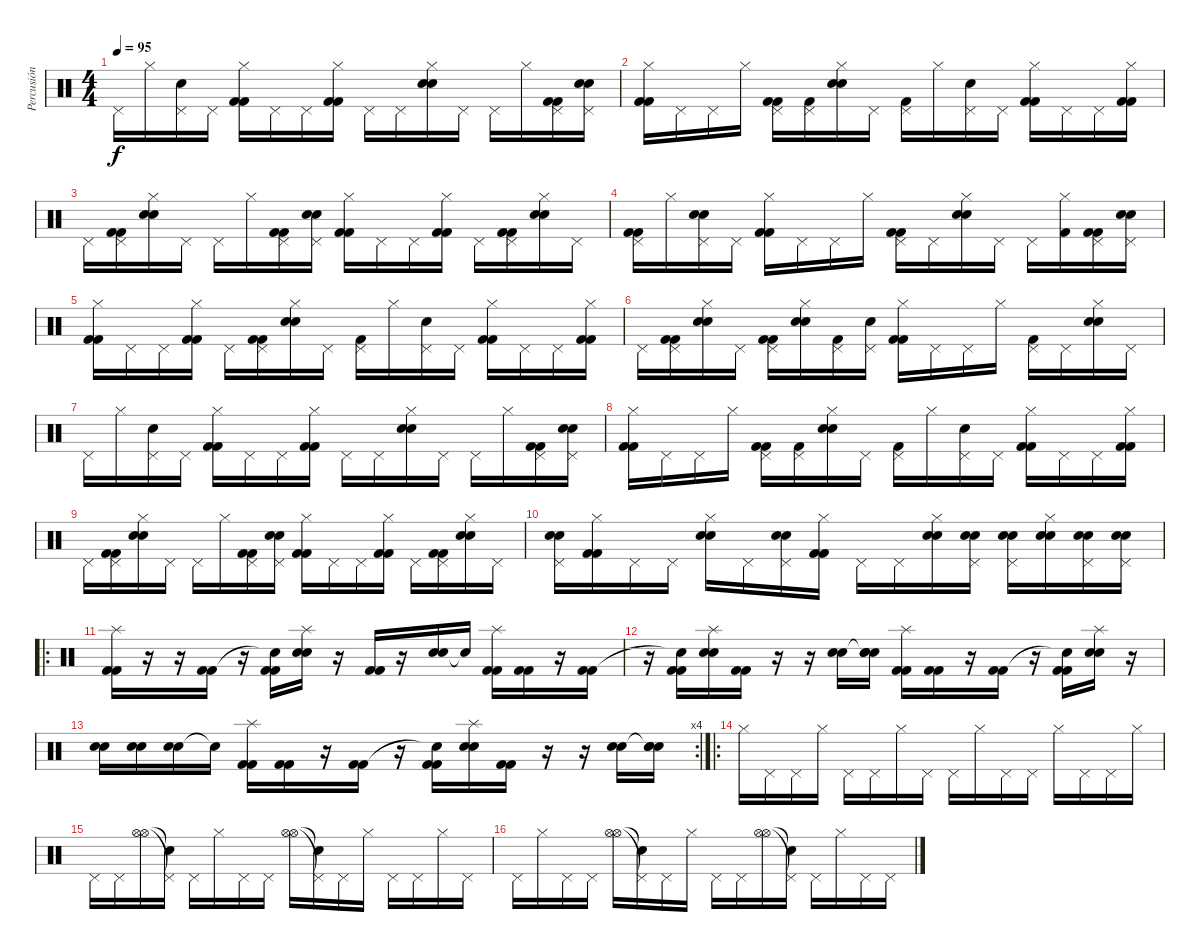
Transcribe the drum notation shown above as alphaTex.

\track ("Percusión" "Percusión") {instrument percussion}
\staff {score}
\articulation defaults
\ts (4 4)
\tempo 95
\clef neutral
\ks c "Pedal Hi-Hat (hit)".16{dy f} "Hi-Hat (closed)".16
("Pedal Hi-Hat (hit)" "Electric Snare (hit)").16 "Pedal Hi-Hat (hit)".16 ("Hi-Hat (closed)" "Kick (hit) 2" "Kick (hit) 2").16 "Pedal Hi-Hat (hit)".16 "Pedal Hi-Hat (hit)".16 ("Hi-Hat (closed)" "Kick (hit) 2" "Kick (hit) 2").16 "Pedal Hi-Hat (hit)".16 "Pedal Hi-Hat (hit)".16 ("Hi-Hat (closed)" "Electric Snare (hit)" "Electric Snare (hit)").16 "Pedal Hi-Hat (hit)".16 "Pedal Hi-Hat (hit)".16 "Hi-Hat (closed)".16 ("Pedal Hi-Hat (hit)" "Kick (hit) 2" "Kick (hit) 2").16 ("Pedal Hi-Hat (hit)" "Electric Snare (hit)" "Electric Snare (hit)").16 |
("Hi-Hat (closed)" "Kick (hit) 2" "Kick (hit) 2").16 "Pedal Hi-Hat (hit)".16 "Pedal Hi-Hat (hit)".16 "Hi-Hat (closed)".16 ("Pedal Hi-Hat (hit)" "Kick (hit) 2" "Kick (hit) 2").16 ("Pedal Hi-Hat (hit)" "Kick (hit) 2").16 ("Hi-Hat (closed)" "Electric Snare (hit)" "Electric Snare (hit)").16 "Pedal Hi-Hat (hit)".16 ("Pedal Hi-Hat (hit)" "Kick (hit) 2").16 "Hi-Hat (closed)".16 ("Pedal Hi-Hat (hit)" "Electric Snare (hit)").16 "Pedal Hi-Hat (hit)".16 ("Hi-Hat (closed)" "Kick (hit) 2" "Kick (hit) 2").16 "Pedal Hi-Hat (hit)".16 "Pedal Hi-Hat (hit)".16 ("Hi-Hat (closed)" "Kick (hit) 2" "Kick (hit) 2").16 |
"Pedal Hi-Hat (hit)".16 ("Pedal Hi-Hat (hit)" "Kick (hit) 2" "Kick (hit) 2").16 ("Hi-Hat (closed)" "Electric Snare (hit)" "Electric Snare (hit)").16 "Pedal Hi-Hat (hit)".16 "Pedal Hi-Hat (hit)".16 "Hi-Hat (closed)".16 ("Pedal Hi-Hat (hit)" "Kick (hit) 2" "Kick (hit) 2").16 ("Pedal Hi-Hat (hit)" "Electric Snare (hit)" "Electric Snare (hit)").16 ("Hi-Hat (closed)" "Kick (hit) 2" "Kick (hit) 2").16 "Pedal Hi-Hat (hit)".16 "Pedal Hi-Hat (hit)".16 ("Hi-Hat (closed)" "Kick (hit) 2" "Kick (hit) 2").16 "Pedal Hi-Hat (hit)".16 ("Pedal Hi-Hat (hit)" "Kick (hit) 2" "Kick (hit) 2").16 ("Hi-Hat (closed)" "Electric Snare (hit)" "Electric Snare (hit)").16 "Pedal Hi-Hat (hit)".16 |
("Pedal Hi-Hat (hit)" "Kick (hit) 2" "Kick (hit) 2").16 "Hi-Hat (closed)".16 ("Pedal Hi-Hat (hit)" "Electric Snare (hit)" "Electric Snare (hit)").16 "Pedal Hi-Hat (hit)".16 ("Hi-Hat (closed)" "Kick (hit) 2" "Kick (hit) 2").16 "Pedal Hi-Hat (hit)".16 "Pedal Hi-Hat (hit)".16 "Hi-Hat (closed)".16 ("Pedal Hi-Hat (hit)" "Kick (hit) 2" "Kick (hit) 2").16 "Pedal Hi-Hat (hit)".16 ("Hi-Hat (closed)" "Electric Snare (hit)" "Electric Snare (hit)").16 "Pedal Hi-Hat (hit)".16 "Pedal Hi-Hat (hit)".16 ("Hi-Hat (closed)" "Kick (hit) 2").16 ("Pedal Hi-Hat (hit)" "Kick (hit) 2" "Kick (hit) 2").16 ("Pedal Hi-Hat (hit)" "Electric Snare (hit)" "Electric Snare (hit)").16 |
("Hi-Hat (closed)" "Kick (hit) 2" "Kick (hit) 2").16 "Pedal Hi-Hat (hit)".16 "Pedal Hi-Hat (hit)".16 ("Hi-Hat (closed)" "Kick (hit) 2" "Kick (hit) 2").16 "Pedal Hi-Hat (hit)".16 ("Pedal Hi-Hat (hit)" "Kick (hit) 2" "Kick (hit) 2").16 ("Hi-Hat (closed)" "Electric Snare (hit)" "Electric Snare (hit)").16 "Pedal Hi-Hat (hit)".16 ("Pedal Hi-Hat (hit)" "Kick (hit) 2").16 "Hi-Hat (closed)".16 ("Pedal Hi-Hat (hit)" "Electric Snare (hit)").16 "Pedal Hi-Hat (hit)".16 ("Hi-Hat (closed)" "Kick (hit) 2" "Kick (hit) 2").16 "Pedal Hi-Hat (hit)".16 "Pedal Hi-Hat (hit)".16 ("Hi-Hat (closed)" "Kick (hit) 2" "Kick (hit) 2").16 |
"Pedal Hi-Hat (hit)".16 ("Pedal Hi-Hat (hit)" "Kick (hit) 2" "Kick (hit) 2").16 ("Hi-Hat (closed)" "Electric Snare (hit)" "Electric Snare (hit)").16 "Pedal Hi-Hat (hit)".16 ("Pedal Hi-Hat (hit)" "Kick (hit) 2" "Kick (hit) 2").16 ("Hi-Hat (closed)" "Electric Snare (hit)" "Electric Snare (hit)").16 ("Pedal Hi-Hat (hit)" "Kick (hit) 2").16 ("Pedal Hi-Hat (hit)" "Electric Snare (hit)").16 ("Hi-Hat (closed)" "Kick (hit) 2" "Kick (hit) 2").16 "Pedal Hi-Hat (hit)".16 "Pedal Hi-Hat (hit)".16 "Hi-Hat (closed)".16 ("Pedal Hi-Hat (hit)" "Kick (hit) 2").16 "Pedal Hi-Hat (hit)".16 ("Hi-Hat (closed)" "Electric Snare (hit)" "Electric Snare (hit)").16 "Pedal Hi-Hat (hit)".16 |
"Pedal Hi-Hat (hit)".16 "Hi-Hat (closed)".16 ("Pedal Hi-Hat (hit)" "Electric Snare (hit)").16 "Pedal Hi-Hat (hit)".16 ("Hi-Hat (closed)" "Kick (hit) 2" "Kick (hit) 2").16 "Pedal Hi-Hat (hit)".16 "Pedal Hi-Hat (hit)".16 ("Hi-Hat (closed)" "Kick (hit) 2" "Kick (hit) 2").16 "Pedal Hi-Hat (hit)".16 "Pedal Hi-Hat (hit)".16 ("Hi-Hat (closed)" "Electric Snare (hit)" "Electric Snare (hit)").16 "Pedal Hi-Hat (hit)".16 "Pedal Hi-Hat (hit)".16 "Hi-Hat (closed)".16 ("Pedal Hi-Hat (hit)" "Kick (hit) 2" "Kick (hit) 2").16 ("Pedal Hi-Hat (hit)" "Electric Snare (hit)" "Electric Snare (hit)").16 |
("Hi-Hat (closed)" "Kick (hit) 2" "Kick (hit) 2").16 "Pedal Hi-Hat (hit)".16 "Pedal Hi-Hat (hit)".16 "Hi-Hat (closed)".16 ("Pedal Hi-Hat (hit)" "Kick (hit) 2" "Kick (hit) 2").16 ("Pedal Hi-Hat (hit)" "Kick (hit) 2").16 ("Hi-Hat (closed)" "Electric Snare (hit)" "Electric Snare (hit)").16 "Pedal Hi-Hat (hit)".16 ("Pedal Hi-Hat (hit)" "Kick (hit) 2").16 "Hi-Hat (closed)".16 ("Pedal Hi-Hat (hit)" "Electric Snare (hit)").16 "Pedal Hi-Hat (hit)".16 ("Hi-Hat (closed)" "Kick (hit) 2" "Kick (hit) 2").16 "Pedal Hi-Hat (hit)".16 "Pedal Hi-Hat (hit)".16 ("Hi-Hat (closed)" "Kick (hit) 2" "Kick (hit) 2").16 |
"Pedal Hi-Hat (hit)".16 ("Pedal Hi-Hat (hit)" "Kick (hit) 2" "Kick (hit) 2").16 ("Hi-Hat (closed)" "Electric Snare (hit)" "Electric Snare (hit)").16 "Pedal Hi-Hat (hit)".16 "Pedal Hi-Hat (hit)".16 "Hi-Hat (closed)".16 ("Pedal Hi-Hat (hit)" "Kick (hit) 2" "Kick (hit) 2").16 ("Pedal Hi-Hat (hit)" "Electric Snare (hit)" "Electric Snare (hit)").16 ("Hi-Hat (closed)" "Kick (hit) 2" "Kick (hit) 2").16 "Pedal Hi-Hat (hit)".16 "Pedal Hi-Hat (hit)".16 ("Hi-Hat (closed)" "Kick (hit) 2" "Kick (hit) 2").16 "Pedal Hi-Hat (hit)".16 ("Pedal Hi-Hat (hit)" "Kick (hit) 2" "Kick (hit) 2").16 ("Hi-Hat (closed)" "Electric Snare (hit)" "Electric Snare (hit)").16 "Pedal Hi-Hat (hit)".16 |
("Pedal Hi-Hat (hit)" "Electric Snare (hit)" "Electric Snare (hit)").16 ("Hi-Hat (closed)" "Kick (hit) 2" "Kick (hit) 2").16 "Pedal Hi-Hat (hit)".16 "Pedal Hi-Hat (hit)".16 ("Hi-Hat (closed)" "Electric Snare (hit)" "Electric Snare (hit)").16 "Pedal Hi-Hat (hit)".16 ("Pedal Hi-Hat (hit)" "Electric Snare (hit)" "Electric Snare (hit)").16 ("Hi-Hat (closed)" "Kick (hit) 2" "Kick (hit) 2").16 "Pedal Hi-Hat (hit)".16 "Pedal Hi-Hat (hit)".16 ("Hi-Hat (closed)" "Electric Snare (hit)" "Electric Snare (hit)").16 ("Pedal Hi-Hat (hit)" "Electric Snare (hit)" "Electric Snare (hit)").16 ("Pedal Hi-Hat (hit)" "Electric Snare (hit)" "Electric Snare (hit)").16 ("Hi-Hat (closed)" "Electric Snare (hit)" "Electric Snare (hit)").16 ("Pedal Hi-Hat (hit)" "Electric Snare (hit)" "Electric Snare (hit)").16 ("Pedal Hi-Hat (hit)" "Electric Snare (hit)" "Electric Snare (hit)").16 |
\ro
("Splash (hit)" "Kick (hit) 2" "Kick (hit) 2").16 r.16 r.16 ("Kick (hit) 2" "Kick (hit) 2").16 r.16 ("Snare (hit)"{t} "Kick (hit) 2" "Kick (hit) 2").16 ("Splash (hit)" "Electric Snare (hit)" "Electric Snare (hit)").16 r.16 ("Kick (hit) 2" "Kick (hit) 2").16 r.16 ("Electric Snare (hit)" "Electric Snare (hit)").16 "Snare (hit)"{t}.16 ("Splash (hit)" "Kick (hit) 2" "Kick (hit) 2").16 ("Kick (hit) 2" "Kick (hit) 2").16 r.16 ("Kick (hit) 2" "Kick (hit) 2").16 |
r.16 ("Snare (hit)"{t} "Kick (hit) 2" "Kick (hit) 2").16 ("Splash (hit)" "Electric Snare (hit)" "Electric Snare (hit)").16 ("Kick (hit) 2" "Kick (hit) 2").16 r.16 r.16 ("Electric Snare (hit)" "Electric Snare (hit)").16 ("Snare (hit)"{t} "Electric Snare (hit)" "Electric Snare (hit)").16 ("Splash (hit)" "Kick (hit) 2" "Kick (hit) 2").16 ("Kick (hit) 2" "Kick (hit) 2").16 r.16 ("Kick (hit) 2" "Kick (hit) 2").16 r.16 ("Snare (hit)"{t} "Kick (hit) 2" "Kick (hit) 2").16 ("Splash (hit)" "Electric Snare (hit)" "Electric Snare (hit)").16 r.16 |
\rc 4
("Electric Snare (hit)" "Electric Snare (hit)").16 ("Electric Snare (hit)" "Electric Snare (hit)").16 ("Electric Snare (hit)" "Electric Snare (hit)").16 "Snare (hit)"{t}.16 ("Splash (hit)" "Kick (hit) 2" "Kick (hit) 2").16 ("Kick (hit) 2" "Kick (hit) 2").16 r.16 ("Kick (hit) 2" "Kick (hit) 2").16 r.16 ("Snare (hit)"{t} "Kick (hit) 2" "Kick (hit) 2").16 ("Splash (hit)" "Electric Snare (hit)" "Electric Snare (hit)").16 ("Kick (hit) 2" "Kick (hit) 2").16 r.16 r.16 ("Electric Snare (hit)" "Electric Snare (hit)").16 ("Snare (hit)"{t} "Electric Snare (hit)" "Electric Snare (hit)").16 |
\ro "Hi-Hat (closed)".16 "Pedal Hi-Hat (hit)".16 "Pedal Hi-Hat (hit)".16 "Hi-Hat (closed)".16 "Pedal Hi-Hat (hit)".16 "Pedal Hi-Hat (hit)".16 "Hi-Hat (closed)".16 "Pedal Hi-Hat (hit)".16 "Pedal Hi-Hat (hit)".16 "Hi-Hat (closed)".16 "Pedal Hi-Hat (hit)".16 "Pedal Hi-Hat (hit)".16 "Hi-Hat (closed)".16 "Pedal Hi-Hat (hit)".16 "Pedal Hi-Hat (hit)".16 "Hi-Hat (closed)".16
|
"Pedal Hi-Hat (hit)".16 "Pedal Hi-Hat (hit)".16 ("Hi-Hat (open)" "Hi-Hat (open)").16 ("Pedal Hi-Hat (hit)"{t} "Snare (hit)"{t}).16 "Pedal Hi-Hat (hit)".16 "Hi-Hat (closed)".16 "Pedal Hi-Hat (hit)".16 "Pedal Hi-Hat (hit)".16 ("Hi-Hat (open)" "Hi-Hat (open)").16 ("Pedal Hi-Hat (hit)"{t} "Snare (hit)"{t}).16 "Pedal Hi-Hat (hit)".16 "Hi-Hat (closed)".16 "Pedal Hi-Hat (hit)".16 "Pedal Hi-Hat (hit)".16 "Hi-Hat (closed)".16 "Pedal Hi-Hat (hit)".16 |
"Pedal Hi-Hat (hit)".16 "Hi-Hat (closed)".16 "Pedal Hi-Hat (hit)".16 "Pedal Hi-Hat (hit)".16 ("Hi-Hat (open)" "Hi-Hat (open)").16 ("Pedal Hi-Hat (hit)"{t} "Snare (hit)"{t}).16 "Pedal Hi-Hat (hit)".16 "Hi-Hat (closed)".16 "Pedal Hi-Hat (hit)".16 "Pedal Hi-Hat (hit)".16 ("Hi-Hat (open)" "Hi-Hat (open)").16 ("Pedal Hi-Hat (hit)"{t} "Snare (hit)"{t}).16 "Pedal Hi-Hat (hit)".16 "Hi-Hat (closed)".16 "Pedal Hi-Hat (hit)".16 "Pedal Hi-Hat (hit)".16
